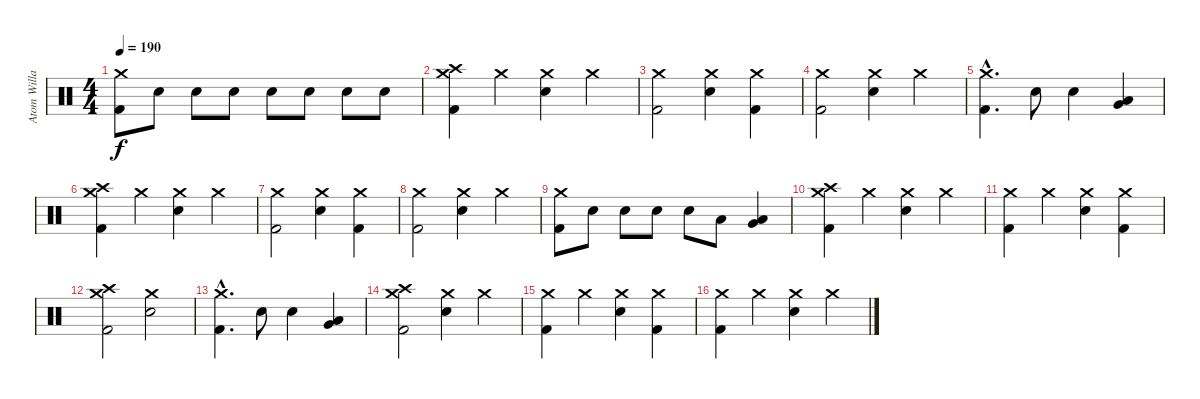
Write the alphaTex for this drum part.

\track ("Atom Willard" "Atom Willa") {instrument percussion}
\staff {score}
\articulation defaults
\ts (4 4)
\tempo 190
\clef neutral
\ks c
("Crash medium (hit)" "Kick (hit) 2").8{dy f} "Electric Snare (hit)".8 "Electric Snare (hit)".8 "Electric Snare (hit)".8 "Electric Snare (hit)".8 "Electric Snare (hit)".8 "Electric Snare (hit)".8 "Electric Snare (hit)".8 |
("Crash high (hit)" "Crash medium (hit)" "Kick (hit) 2").4 "Crash medium (hit)".4 ("Crash medium (hit)" "Electric Snare (hit)").4 "Crash medium (hit)".4 |
("Crash medium (hit)" "Kick (hit) 2").2 ("Crash medium (hit)" "Electric Snare (hit)").4 ("Crash medium (hit)" "Kick (hit) 2").4 |
("Crash medium (hit)" "Kick (hit) 2").2 ("Crash medium (hit)" "Electric Snare (hit)").4 "Crash medium (hit)".4 |
("Crash medium (hit)"{hac} "Kick (hit) 2"{hac}).4{d} "Electric Snare (hit)".8 "Electric Snare (hit)".4 ("Very Low Tom (hit)" "Low Floor Tom (hit)").4 |
("Crash high (hit)" "Crash medium (hit)" "Kick (hit) 2").4 "Crash medium (hit)".4 ("Crash medium (hit)" "Electric Snare (hit)").4 "Crash medium (hit)".4 |
("Crash medium (hit)" "Kick (hit) 2").2 ("Crash medium (hit)" "Electric Snare (hit)").4 ("Crash medium (hit)" "Kick (hit) 2").4 |
("Crash medium (hit)" "Kick (hit) 2").2 ("Crash medium (hit)" "Electric Snare (hit)").4 "Crash medium (hit)".4 |
("Crash medium (hit)" "Kick (hit) 2").8 "Electric Snare (hit)".8 "Electric Snare (hit)".8 "Electric Snare (hit)".8 "Electric Snare (hit)".8 "Low Tom (hit)".8 ("Very Low Tom (hit)" "Low Floor Tom (hit)").4 |
("Crash high (hit)" "Crash medium (hit)" "Kick (hit) 2").4 "Crash medium (hit)".4 ("Crash medium (hit)" "Electric Snare (hit)").4 "Crash medium (hit)".4 |
("Crash medium (hit)" "Kick (hit) 2").4 "Crash medium (hit)".4 ("Crash medium (hit)" "Electric Snare (hit)").4 ("Crash medium (hit)" "Kick (hit) 2").4 |
("Crash high (hit)" "Crash medium (hit)" "Kick (hit) 2").2 ("Crash medium (hit)" "Electric Snare (hit)").2 |
("Crash medium (hit)"{hac} "Kick (hit) 2"{hac}).4{d} "Electric Snare (hit)".8 "Electric Snare (hit)".4 ("Very Low Tom (hit)" "Low Floor Tom (hit)").4 |
("Crash high (hit)" "Crash medium (hit)" "Kick (hit) 2").2 ("Crash medium (hit)" "Electric Snare (hit)").4 "Crash medium (hit)".4 |
("Crash medium (hit)" "Kick (hit) 2").4 "Crash medium (hit)".4 ("Crash medium (hit)" "Electric Snare (hit)").4 ("Crash medium (hit)" "Kick (hit) 2").4 |
("Crash medium (hit)" "Kick (hit) 2").4 "Crash medium (hit)".4 ("Crash medium (hit)" "Electric Snare (hit)").4 "Crash medium (hit)".4
